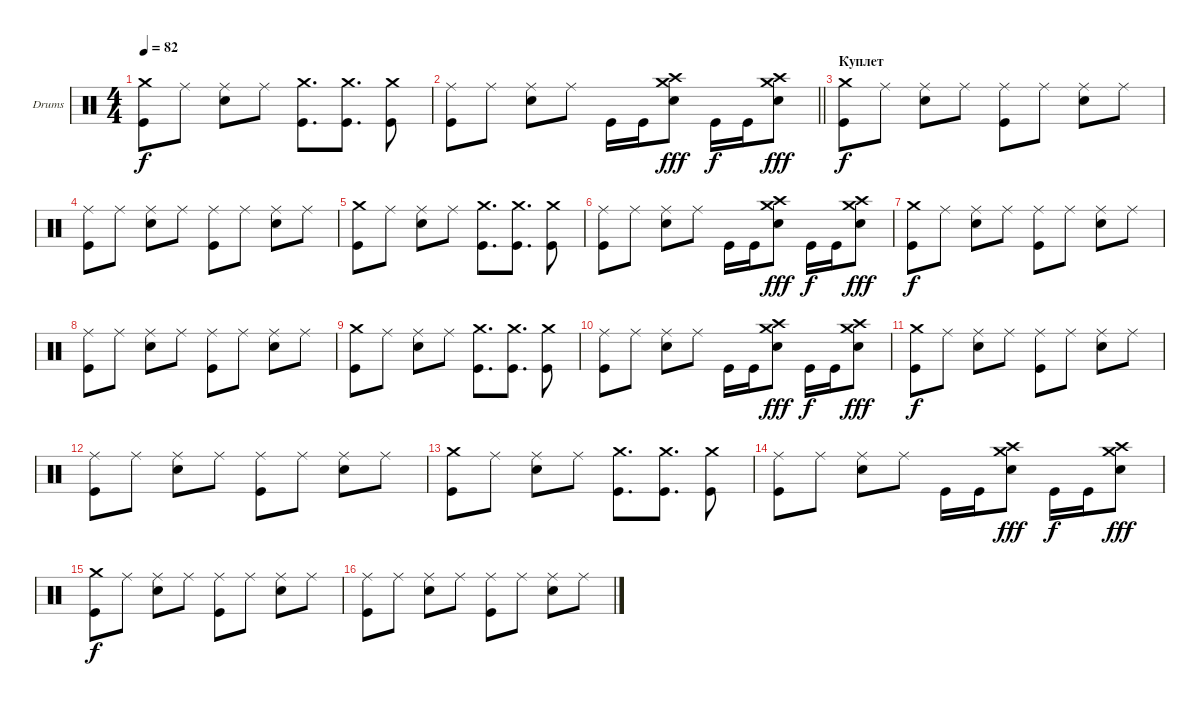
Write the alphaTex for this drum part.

\bracketExtendMode groupsimilarinstruments
\firstSystemTrackNameOrientation horizontal
\otherSystemsTrackNameOrientation horizontal
\track ("Александр Манякин" "Drums") {instrument percussion}
\staff {score}
\articulation defaults
\ts (4 4)
\tempo 82
\clef neutral
\ks c
("Kick (hit)" "Crash medium (hit)").8{dy f} "Ride (middle)".8 ("Snare (hit) 2" "Ride (middle)").8 "Ride (middle)".8 ("Kick (hit)" "Crash medium (hit)").8{d} ("Kick (hit)" "Crash medium (hit)").8{d} ("Kick (hit)" "Crash medium (hit)").8 |
\barLineRight lightlight
("Kick (hit)" "Ride (middle)").8 "Ride (middle)".8 ("Snare (hit) 2" "Ride (middle)").8 "Ride (middle)".8 "Kick (hit)".16 "Kick (hit)".16 ("Snare (hit) 2" "Crash medium (hit)" "Crash high (hit)").8{dy fff} "Kick (hit)".16{dy f} "Kick (hit)".16 ("Snare (hit) 2" "Crash medium (hit)" "Crash high (hit)").8{dy fff} |
\section ("" "Куплет")
("Kick (hit)" "Crash medium (hit)").8{dy f} "Ride (middle)".8 ("Snare (hit) 2" "Ride (middle)").8 "Ride (middle)".8 ("Kick (hit)" "Ride (middle)").8 "Ride (middle)".8 ("Snare (hit) 2" "Ride (middle)").8 "Ride (middle)".8 |
("Kick (hit)" "Ride (middle)").8 "Ride (middle)".8 ("Snare (hit) 2" "Ride (middle)").8 "Ride (middle)".8 ("Kick (hit)" "Ride (middle)").8 "Ride (middle)".8 ("Snare (hit) 2" "Ride (middle)").8 "Ride (middle)".8 |
("Kick (hit)" "Crash medium (hit)").8 "Ride (middle)".8 ("Snare (hit) 2" "Ride (middle)").8 "Ride (middle)".8 ("Kick (hit)" "Crash medium (hit)").8{d} ("Kick (hit)" "Crash medium (hit)").8{d} ("Kick (hit)" "Crash medium (hit)").8 |
("Kick (hit)" "Ride (middle)").8 "Ride (middle)".8 ("Snare (hit) 2" "Ride (middle)").8 "Ride (middle)".8 "Kick (hit)".16 "Kick (hit)".16 ("Snare (hit) 2" "Crash medium (hit)" "Crash high (hit)").8{dy fff} "Kick (hit)".16{dy f} "Kick (hit)".16 ("Snare (hit) 2" "Crash medium (hit)" "Crash high (hit)").8{dy fff} |
("Kick (hit)" "Crash medium (hit)").8{dy f} "Ride (middle)".8 ("Snare (hit) 2" "Ride (middle)").8 "Ride (middle)".8 ("Kick (hit)" "Ride (middle)").8 "Ride (middle)".8 ("Snare (hit) 2" "Ride (middle)").8 "Ride (middle)".8 |
("Kick (hit)" "Ride (middle)").8 "Ride (middle)".8 ("Snare (hit) 2" "Ride (middle)").8 "Ride (middle)".8 ("Kick (hit)" "Ride (middle)").8 "Ride (middle)".8 ("Snare (hit) 2" "Ride (middle)").8 "Ride (middle)".8 |
("Kick (hit)" "Crash medium (hit)").8 "Ride (middle)".8 ("Snare (hit) 2" "Ride (middle)").8 "Ride (middle)".8 ("Kick (hit)" "Crash medium (hit)").8{d} ("Kick (hit)" "Crash medium (hit)").8{d} ("Kick (hit)" "Crash medium (hit)").8 |
("Kick (hit)" "Ride (middle)").8 "Ride (middle)".8 ("Snare (hit) 2" "Ride (middle)").8 "Ride (middle)".8 "Kick (hit)".16 "Kick (hit)".16 ("Snare (hit) 2" "Crash medium (hit)" "Crash high (hit)").8{dy fff} "Kick (hit)".16{dy f} "Kick (hit)".16 ("Snare (hit) 2" "Crash medium (hit)" "Crash high (hit)").8{dy fff} |
("Kick (hit)" "Crash medium (hit)").8{dy f} "Ride (middle)".8 ("Snare (hit) 2" "Ride (middle)").8 "Ride (middle)".8 ("Kick (hit)" "Ride (middle)").8 "Ride (middle)".8 ("Snare (hit) 2" "Ride (middle)").8 "Ride (middle)".8 |
("Kick (hit)" "Ride (middle)").8 "Ride (middle)".8 ("Snare (hit) 2" "Ride (middle)").8 "Ride (middle)".8 ("Kick (hit)" "Ride (middle)").8 "Ride (middle)".8 ("Snare (hit) 2" "Ride (middle)").8 "Ride (middle)".8 |
("Kick (hit)" "Crash medium (hit)").8 "Ride (middle)".8 ("Snare (hit) 2" "Ride (middle)").8 "Ride (middle)".8 ("Kick (hit)" "Crash medium (hit)").8{d} ("Kick (hit)" "Crash medium (hit)").8{d} ("Kick (hit)" "Crash medium (hit)").8 |
("Kick (hit)" "Ride (middle)").8 "Ride (middle)".8 ("Snare (hit) 2" "Ride (middle)").8 "Ride (middle)".8 "Kick (hit)".16 "Kick (hit)".16 ("Snare (hit) 2" "Crash medium (hit)" "Crash high (hit)").8{dy fff} "Kick (hit)".16{dy f} "Kick (hit)".16 ("Snare (hit) 2" "Crash medium (hit)" "Crash high (hit)").8{dy fff} |
("Kick (hit)" "Crash medium (hit)").8{dy f} "Ride (middle)".8 ("Snare (hit) 2" "Ride (middle)").8 "Ride (middle)".8 ("Kick (hit)" "Ride (middle)").8 "Ride (middle)".8 ("Snare (hit) 2" "Ride (middle)").8 "Ride (middle)".8 |
("Kick (hit)" "Ride (middle)").8 "Ride (middle)".8 ("Snare (hit) 2" "Ride (middle)").8 "Ride (middle)".8 ("Kick (hit)" "Ride (middle)").8 "Ride (middle)".8 ("Snare (hit) 2" "Ride (middle)").8 "Ride (middle)".8
